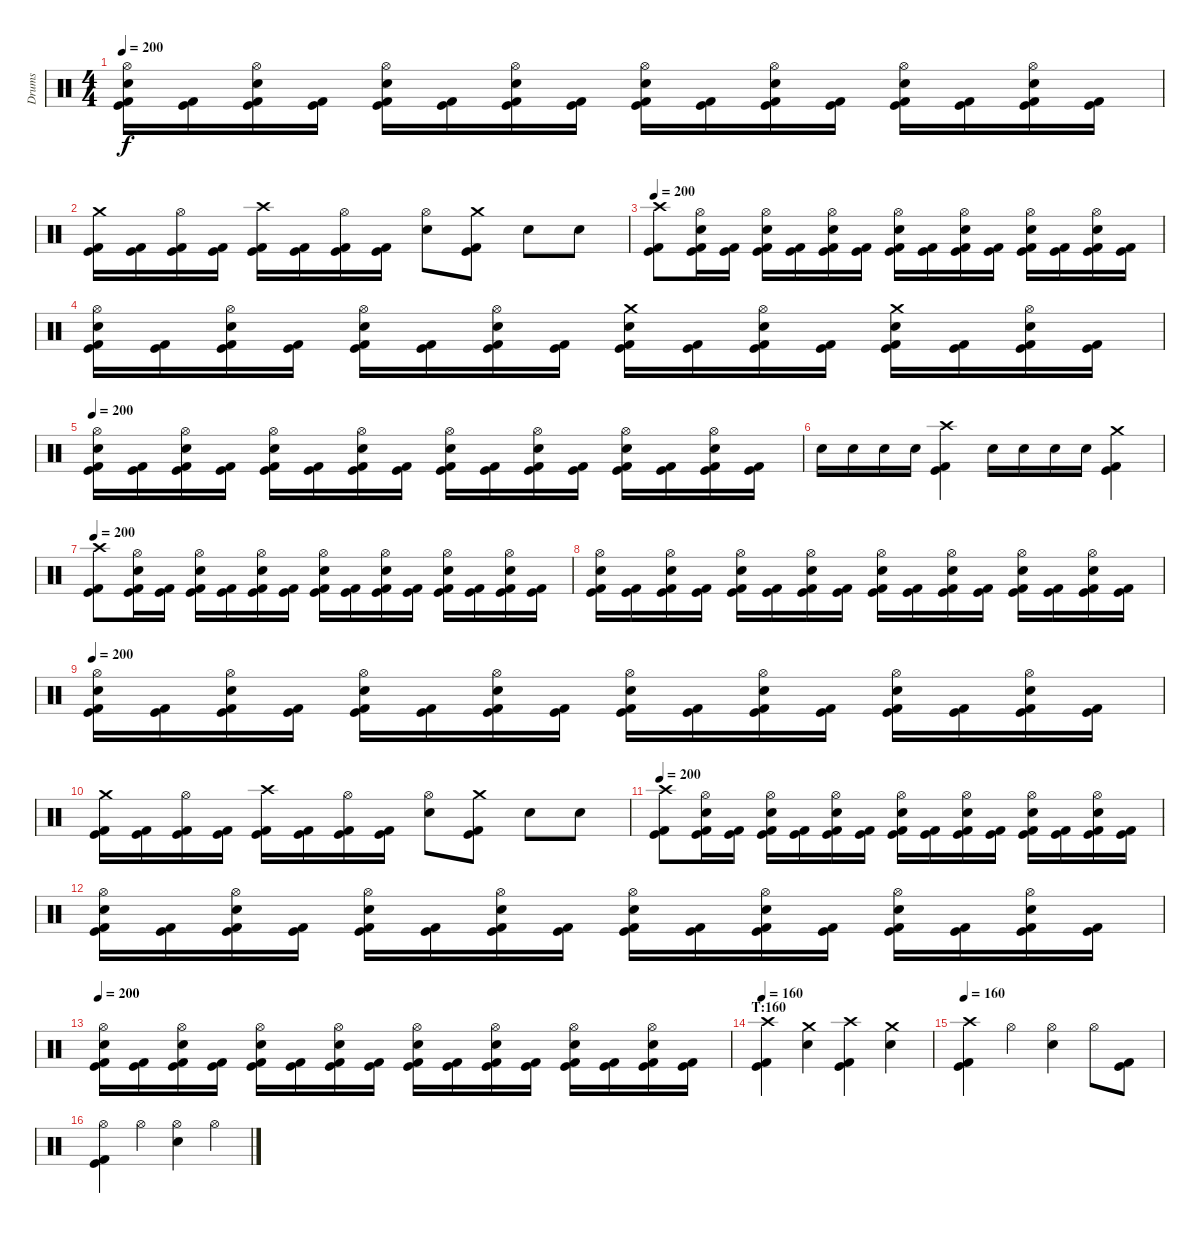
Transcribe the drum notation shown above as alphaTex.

\track ("Drums" "Drums") {instrument percussion}
\staff {score}
\articulation defaults
\ts (4 4)
\tempo 200
\clef neutral
\ks c
("Hi-Hat (open)" "Electric Snare (hit)" "Kick (hit)" "Kick (hit) 2").16{dy f} ("Kick (hit)" "Kick (hit) 2").16 ("Hi-Hat (open)" "Electric Snare (hit)" "Kick (hit)" "Kick (hit) 2").16 ("Kick (hit)" "Kick (hit) 2").16 ("Hi-Hat (open)" "Electric Snare (hit)" "Kick (hit)" "Kick (hit) 2").16 ("Kick (hit)" "Kick (hit) 2").16 ("Hi-Hat (open)" "Electric Snare (hit)" "Kick (hit)" "Kick (hit) 2").16 ("Kick (hit)" "Kick (hit) 2").16 ("Hi-Hat (open)" "Electric Snare (hit)" "Kick (hit)" "Kick (hit) 2").16 ("Kick (hit)" "Kick (hit) 2").16 ("Hi-Hat (open)" "Electric Snare (hit)" "Kick (hit)" "Kick (hit) 2").16 ("Kick (hit)" "Kick (hit) 2").16 ("Hi-Hat (open)" "Electric Snare (hit)" "Kick (hit)" "Kick (hit) 2").16 ("Kick (hit)" "Kick (hit) 2").16 ("Hi-Hat (open)" "Electric Snare (hit)" "Kick (hit)" "Kick (hit) 2").16 ("Kick (hit)" "Kick (hit) 2").16 |
("Crash medium (hit)" "Kick (hit)" "Kick (hit) 2").16 ("Kick (hit)" "Kick (hit) 2").16 ("Hi-Hat (open)" "Kick (hit)" "Kick (hit) 2").16 ("Kick (hit)" "Kick (hit) 2").16 ("Crash high (hit)" "Kick (hit)" "Kick (hit) 2").16 ("Kick (hit)" "Kick (hit) 2").16 ("Hi-Hat (open)" "Kick (hit)" "Kick (hit) 2").16 ("Kick (hit)" "Kick (hit) 2").16 ("Electric Snare (hit)" "Hi-Hat (open)").8 ("Crash medium (hit)" "Kick (hit)" "Kick (hit) 2").8 "Electric Snare (hit)".8 "Electric Snare (hit)".8 |
\tempo 200
("Crash high (hit)" "Kick (hit)" "Kick (hit) 2").8 ("Hi-Hat (open)" "Electric Snare (hit)" "Kick (hit)" "Kick (hit) 2").16 ("Kick (hit)" "Kick (hit) 2").16 ("Hi-Hat (open)" "Electric Snare (hit)" "Kick (hit)" "Kick (hit) 2").16 ("Kick (hit)" "Kick (hit) 2").16 ("Hi-Hat (open)" "Electric Snare (hit)" "Kick (hit)" "Kick (hit) 2").16 ("Kick (hit)" "Kick (hit) 2").16 ("Hi-Hat (open)" "Electric Snare (hit)" "Kick (hit)" "Kick (hit) 2").16 ("Kick (hit)" "Kick (hit) 2").16 ("Hi-Hat (open)" "Electric Snare (hit)" "Kick (hit)" "Kick (hit) 2").16 ("Kick (hit)" "Kick (hit) 2").16 ("Hi-Hat (open)" "Electric Snare (hit)" "Kick (hit)" "Kick (hit) 2").16 ("Kick (hit)" "Kick (hit) 2").16 ("Hi-Hat (open)" "Electric Snare (hit)" "Kick (hit)" "Kick (hit) 2").16 ("Kick (hit)" "Kick (hit) 2").16 |
("Hi-Hat (open)" "Electric Snare (hit)" "Kick (hit)" "Kick (hit) 2").16 ("Kick (hit)" "Kick (hit) 2").16 ("Hi-Hat (open)" "Electric Snare (hit)" "Kick (hit)" "Kick (hit) 2").16 ("Kick (hit)" "Kick (hit) 2").16 ("Hi-Hat (open)" "Electric Snare (hit)" "Kick (hit)" "Kick (hit) 2").16 ("Kick (hit)" "Kick (hit) 2").16 ("Hi-Hat (open)" "Electric Snare (hit)" "Kick (hit)" "Kick (hit) 2").16 ("Kick (hit)" "Kick (hit) 2").16 ("Crash medium (hit)" "Electric Snare (hit)" "Kick (hit)" "Kick (hit) 2").16 ("Kick (hit)" "Kick (hit) 2").16 ("Hi-Hat (open)" "Electric Snare (hit)" "Kick (hit)" "Kick (hit) 2").16 ("Kick (hit)" "Kick (hit) 2").16 ("Crash medium (hit)" "Electric Snare (hit)" "Kick (hit)" "Kick (hit) 2").16 ("Kick (hit)" "Kick (hit) 2").16 ("Hi-Hat (open)" "Electric Snare (hit)" "Kick (hit)" "Kick (hit) 2").16 ("Kick (hit)" "Kick (hit) 2").16 |
\tempo 200
("Hi-Hat (open)" "Electric Snare (hit)" "Kick (hit)" "Kick (hit) 2").16 ("Kick (hit)" "Kick (hit) 2").16 ("Hi-Hat (open)" "Electric Snare (hit)" "Kick (hit)" "Kick (hit) 2").16 ("Kick (hit)" "Kick (hit) 2").16 ("Hi-Hat (open)" "Electric Snare (hit)" "Kick (hit)" "Kick (hit) 2").16 ("Kick (hit)" "Kick (hit) 2").16 ("Hi-Hat (open)" "Electric Snare (hit)" "Kick (hit)" "Kick (hit) 2").16 ("Kick (hit)" "Kick (hit) 2").16 ("Hi-Hat (open)" "Electric Snare (hit)" "Kick (hit)" "Kick (hit) 2").16 ("Kick (hit)" "Kick (hit) 2").16 ("Hi-Hat (open)" "Electric Snare (hit)" "Kick (hit)" "Kick (hit) 2").16 ("Kick (hit)" "Kick (hit) 2").16 ("Hi-Hat (open)" "Electric Snare (hit)" "Kick (hit)" "Kick (hit) 2").16 ("Kick (hit)" "Kick (hit) 2").16 ("Hi-Hat (open)" "Electric Snare (hit)" "Kick (hit)" "Kick (hit) 2").16 ("Kick (hit)" "Kick (hit) 2").16 |
"Electric Snare (hit)".16 "Electric Snare (hit)".16 "Electric Snare (hit)".16 "Electric Snare (hit)".16 ("Crash high (hit)" "Kick (hit)" "Kick (hit) 2").4 "Electric Snare (hit)".16 "Electric Snare (hit)".16 "Electric Snare (hit)".16 "Electric Snare (hit)".16 ("Crash medium (hit)" "Kick (hit)" "Kick (hit) 2").4 |
\tempo 200
("Crash high (hit)" "Kick (hit)" "Kick (hit) 2").8 ("Hi-Hat (open)" "Electric Snare (hit)" "Kick (hit)" "Kick (hit) 2").16 ("Kick (hit)" "Kick (hit) 2").16 ("Hi-Hat (open)" "Electric Snare (hit)" "Kick (hit)" "Kick (hit) 2").16 ("Kick (hit)" "Kick (hit) 2").16 ("Hi-Hat (open)" "Electric Snare (hit)" "Kick (hit)" "Kick (hit) 2").16 ("Kick (hit)" "Kick (hit) 2").16 ("Hi-Hat (open)" "Electric Snare (hit)" "Kick (hit)" "Kick (hit) 2").16 ("Kick (hit)" "Kick (hit) 2").16 ("Hi-Hat (open)" "Electric Snare (hit)" "Kick (hit)" "Kick (hit) 2").16 ("Kick (hit)" "Kick (hit) 2").16 ("Hi-Hat (open)" "Electric Snare (hit)" "Kick (hit)" "Kick (hit) 2").16 ("Kick (hit)" "Kick (hit) 2").16 ("Hi-Hat (open)" "Electric Snare (hit)" "Kick (hit)" "Kick (hit) 2").16 ("Kick (hit)" "Kick (hit) 2").16 |
("Hi-Hat (open)" "Electric Snare (hit)" "Kick (hit)" "Kick (hit) 2").16 ("Kick (hit)" "Kick (hit) 2").16 ("Hi-Hat (open)" "Electric Snare (hit)" "Kick (hit)" "Kick (hit) 2").16 ("Kick (hit)" "Kick (hit) 2").16 ("Hi-Hat (open)" "Electric Snare (hit)" "Kick (hit)" "Kick (hit) 2").16 ("Kick (hit)" "Kick (hit) 2").16 ("Hi-Hat (open)" "Electric Snare (hit)" "Kick (hit)" "Kick (hit) 2").16 ("Kick (hit)" "Kick (hit) 2").16 ("Hi-Hat (open)" "Electric Snare (hit)" "Kick (hit)" "Kick (hit) 2").16 ("Kick (hit)" "Kick (hit) 2").16 ("Hi-Hat (open)" "Electric Snare (hit)" "Kick (hit)" "Kick (hit) 2").16 ("Kick (hit)" "Kick (hit) 2").16 ("Hi-Hat (open)" "Electric Snare (hit)" "Kick (hit)" "Kick (hit) 2").16 ("Kick (hit)" "Kick (hit) 2").16 ("Hi-Hat (open)" "Electric Snare (hit)" "Kick (hit)" "Kick (hit) 2").16 ("Kick (hit)" "Kick (hit) 2").16 |
\tempo 200
("Hi-Hat (open)" "Electric Snare (hit)" "Kick (hit)" "Kick (hit) 2").16 ("Kick (hit)" "Kick (hit) 2").16 ("Hi-Hat (open)" "Electric Snare (hit)" "Kick (hit)" "Kick (hit) 2").16 ("Kick (hit)" "Kick (hit) 2").16 ("Hi-Hat (open)" "Electric Snare (hit)" "Kick (hit)" "Kick (hit) 2").16 ("Kick (hit)" "Kick (hit) 2").16 ("Hi-Hat (open)" "Electric Snare (hit)" "Kick (hit)" "Kick (hit) 2").16 ("Kick (hit)" "Kick (hit) 2").16 ("Hi-Hat (open)" "Electric Snare (hit)" "Kick (hit)" "Kick (hit) 2").16 ("Kick (hit)" "Kick (hit) 2").16 ("Hi-Hat (open)" "Electric Snare (hit)" "Kick (hit)" "Kick (hit) 2").16 ("Kick (hit)" "Kick (hit) 2").16 ("Hi-Hat (open)" "Electric Snare (hit)" "Kick (hit)" "Kick (hit) 2").16 ("Kick (hit)" "Kick (hit) 2").16 ("Hi-Hat (open)" "Electric Snare (hit)" "Kick (hit)" "Kick (hit) 2").16 ("Kick (hit)" "Kick (hit) 2").16 |
("Crash medium (hit)" "Kick (hit)" "Kick (hit) 2").16 ("Kick (hit)" "Kick (hit) 2").16 ("Hi-Hat (open)" "Kick (hit)" "Kick (hit) 2").16 ("Kick (hit)" "Kick (hit) 2").16 ("Crash high (hit)" "Kick (hit)" "Kick (hit) 2").16 ("Kick (hit)" "Kick (hit) 2").16 ("Hi-Hat (open)" "Kick (hit)" "Kick (hit) 2").16 ("Kick (hit)" "Kick (hit) 2").16 ("Electric Snare (hit)" "Hi-Hat (open)").8 ("Crash medium (hit)" "Kick (hit)" "Kick (hit) 2").8 "Electric Snare (hit)".8 "Electric Snare (hit)".8 |
\tempo 200
("Crash high (hit)" "Kick (hit)" "Kick (hit) 2").8 ("Hi-Hat (open)" "Electric Snare (hit)" "Kick (hit)" "Kick (hit) 2").16 ("Kick (hit)" "Kick (hit) 2").16 ("Hi-Hat (open)" "Electric Snare (hit)" "Kick (hit)" "Kick (hit) 2").16 ("Kick (hit)" "Kick (hit) 2").16 ("Hi-Hat (open)" "Electric Snare (hit)" "Kick (hit)" "Kick (hit) 2").16 ("Kick (hit)" "Kick (hit) 2").16 ("Hi-Hat (open)" "Electric Snare (hit)" "Kick (hit)" "Kick (hit) 2").16 ("Kick (hit)" "Kick (hit) 2").16 ("Hi-Hat (open)" "Electric Snare (hit)" "Kick (hit)" "Kick (hit) 2").16 ("Kick (hit)" "Kick (hit) 2").16 ("Hi-Hat (open)" "Electric Snare (hit)" "Kick (hit)" "Kick (hit) 2").16 ("Kick (hit)" "Kick (hit) 2").16 ("Hi-Hat (open)" "Electric Snare (hit)" "Kick (hit)" "Kick (hit) 2").16 ("Kick (hit)" "Kick (hit) 2").16 |
("Hi-Hat (open)" "Electric Snare (hit)" "Kick (hit)" "Kick (hit) 2").16 ("Kick (hit)" "Kick (hit) 2").16 ("Hi-Hat (open)" "Electric Snare (hit)" "Kick (hit)" "Kick (hit) 2").16 ("Kick (hit)" "Kick (hit) 2").16 ("Hi-Hat (open)" "Electric Snare (hit)" "Kick (hit)" "Kick (hit) 2").16 ("Kick (hit)" "Kick (hit) 2").16 ("Hi-Hat (open)" "Electric Snare (hit)" "Kick (hit)" "Kick (hit) 2").16 ("Kick (hit)" "Kick (hit) 2").16 ("Hi-Hat (open)" "Electric Snare (hit)" "Kick (hit)" "Kick (hit) 2").16 ("Kick (hit)" "Kick (hit) 2").16 ("Hi-Hat (open)" "Electric Snare (hit)" "Kick (hit)" "Kick (hit) 2").16 ("Kick (hit)" "Kick (hit) 2").16 ("Hi-Hat (open)" "Electric Snare (hit)" "Kick (hit)" "Kick (hit) 2").16 ("Kick (hit)" "Kick (hit) 2").16 ("Hi-Hat (open)" "Electric Snare (hit)" "Kick (hit)" "Kick (hit) 2").16 ("Kick (hit)" "Kick (hit) 2").16 |
\tempo 200
("Hi-Hat (open)" "Electric Snare (hit)" "Kick (hit)" "Kick (hit) 2").16 ("Kick (hit)" "Kick (hit) 2").16 ("Hi-Hat (open)" "Electric Snare (hit)" "Kick (hit)" "Kick (hit) 2").16 ("Kick (hit)" "Kick (hit) 2").16 ("Hi-Hat (open)" "Electric Snare (hit)" "Kick (hit)" "Kick (hit) 2").16 ("Kick (hit)" "Kick (hit) 2").16 ("Hi-Hat (open)" "Electric Snare (hit)" "Kick (hit)" "Kick (hit) 2").16 ("Kick (hit)" "Kick (hit) 2").16 ("Hi-Hat (open)" "Electric Snare (hit)" "Kick (hit)" "Kick (hit) 2").16 ("Kick (hit)" "Kick (hit) 2").16 ("Hi-Hat (open)" "Electric Snare (hit)" "Kick (hit)" "Kick (hit) 2").16 ("Kick (hit)" "Kick (hit) 2").16 ("Hi-Hat (open)" "Electric Snare (hit)" "Kick (hit)" "Kick (hit) 2").16 ("Kick (hit)" "Kick (hit) 2").16 ("Hi-Hat (open)" "Electric Snare (hit)" "Kick (hit)" "Kick (hit) 2").16 ("Kick (hit)" "Kick (hit) 2").16 |
\section ("" "T:160")
\tempo 160
("Crash high (hit)" "Kick (hit)" "Kick (hit) 2").4 ("Crash medium (hit)" "Electric Snare (hit)").4 ("Crash high (hit)" "Kick (hit)" "Kick (hit) 2").4 ("Crash medium (hit)" "Electric Snare (hit)").4 |
\tempo 160
("Crash high (hit)" "Kick (hit)" "Kick (hit) 2").4 "Hi-Hat (open)".4 ("Hi-Hat (open)" "Electric Snare (hit)").4 "Hi-Hat (open)".8 ("Kick (hit)" "Kick (hit) 2").8 |
("Hi-Hat (open)" "Kick (hit)" "Kick (hit) 2").4 "Hi-Hat (open)".4 ("Hi-Hat (open)" "Electric Snare (hit)").4 "Hi-Hat (open)".4
